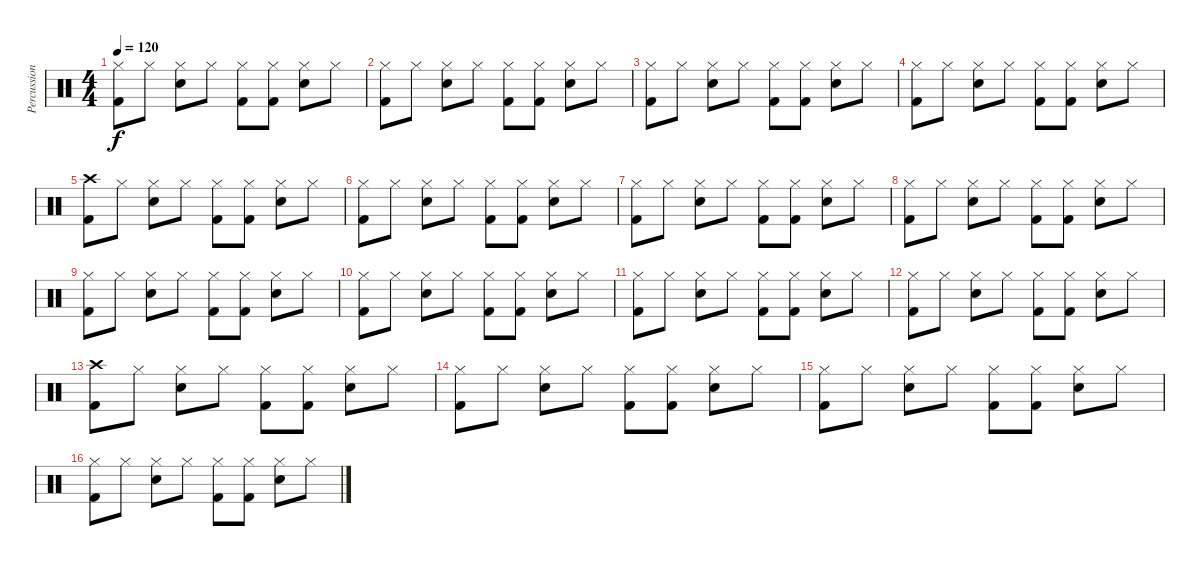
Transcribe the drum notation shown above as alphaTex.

\track ("Percussion" "Percussion") {instrument percussion}
\staff {score}
\articulation defaults
\ts (4 4)
\tempo 120
\clef neutral
\ks c
("Hi-Hat (closed)" "Kick (hit) 2").8{dy f} "Hi-Hat (closed)".8 ("Hi-Hat (closed)" "Electric Snare (hit)").8 "Hi-Hat (closed)".8 ("Hi-Hat (closed)" "Kick (hit) 2").8 ("Hi-Hat (closed)" "Kick (hit) 2").8 ("Hi-Hat (closed)" "Electric Snare (hit)").8 "Hi-Hat (closed)".8 |
("Hi-Hat (closed)" "Kick (hit) 2").8 "Hi-Hat (closed)".8 ("Hi-Hat (closed)" "Electric Snare (hit)").8 "Hi-Hat (closed)".8 ("Hi-Hat (closed)" "Kick (hit) 2").8 ("Hi-Hat (closed)" "Kick (hit) 2").8 ("Hi-Hat (closed)" "Electric Snare (hit)").8 "Hi-Hat (closed)".8 |
("Hi-Hat (closed)" "Kick (hit) 2").8 "Hi-Hat (closed)".8 ("Hi-Hat (closed)" "Electric Snare (hit)").8 "Hi-Hat (closed)".8 ("Hi-Hat (closed)" "Kick (hit) 2").8 ("Hi-Hat (closed)" "Kick (hit) 2").8 ("Hi-Hat (closed)" "Electric Snare (hit)").8 "Hi-Hat (closed)".8 |
("Hi-Hat (closed)" "Kick (hit) 2").8 "Hi-Hat (closed)".8 ("Hi-Hat (closed)" "Electric Snare (hit)").8 "Hi-Hat (closed)".8 ("Hi-Hat (closed)" "Kick (hit) 2").8 ("Hi-Hat (closed)" "Kick (hit) 2").8 ("Hi-Hat (closed)" "Electric Snare (hit)").8 "Hi-Hat (closed)".8 |
("Crash high (hit)" "Kick (hit) 2").8 "Hi-Hat (closed)".8 ("Hi-Hat (closed)" "Electric Snare (hit)").8 "Hi-Hat (closed)".8 ("Hi-Hat (closed)" "Kick (hit) 2").8 ("Hi-Hat (closed)" "Kick (hit) 2").8 ("Hi-Hat (closed)" "Electric Snare (hit)").8 "Hi-Hat (closed)".8 |
("Hi-Hat (closed)" "Kick (hit) 2").8 "Hi-Hat (closed)".8 ("Hi-Hat (closed)" "Electric Snare (hit)").8 "Hi-Hat (closed)".8 ("Hi-Hat (closed)" "Kick (hit) 2").8 ("Hi-Hat (closed)" "Kick (hit) 2").8 ("Hi-Hat (closed)" "Electric Snare (hit)").8 "Hi-Hat (closed)".8 |
("Hi-Hat (closed)" "Kick (hit) 2").8 "Hi-Hat (closed)".8 ("Hi-Hat (closed)" "Electric Snare (hit)").8 "Hi-Hat (closed)".8 ("Hi-Hat (closed)" "Kick (hit) 2").8 ("Hi-Hat (closed)" "Kick (hit) 2").8 ("Hi-Hat (closed)" "Electric Snare (hit)").8 "Hi-Hat (closed)".8 |
("Hi-Hat (closed)" "Kick (hit) 2").8 "Hi-Hat (closed)".8 ("Hi-Hat (closed)" "Electric Snare (hit)").8 "Hi-Hat (closed)".8 ("Hi-Hat (closed)" "Kick (hit) 2").8 ("Hi-Hat (closed)" "Kick (hit) 2").8 ("Hi-Hat (closed)" "Electric Snare (hit)").8 "Hi-Hat (closed)".8 |
("Hi-Hat (closed)" "Kick (hit) 2").8 "Hi-Hat (closed)".8 ("Hi-Hat (closed)" "Electric Snare (hit)").8 "Hi-Hat (closed)".8 ("Hi-Hat (closed)" "Kick (hit) 2").8 ("Hi-Hat (closed)" "Kick (hit) 2").8 ("Hi-Hat (closed)" "Electric Snare (hit)").8 "Hi-Hat (closed)".8 |
("Hi-Hat (closed)" "Kick (hit) 2").8 "Hi-Hat (closed)".8 ("Hi-Hat (closed)" "Electric Snare (hit)").8 "Hi-Hat (closed)".8 ("Hi-Hat (closed)" "Kick (hit) 2").8 ("Hi-Hat (closed)" "Kick (hit) 2").8 ("Hi-Hat (closed)" "Electric Snare (hit)").8 "Hi-Hat (closed)".8 |
("Hi-Hat (closed)" "Kick (hit) 2").8 "Hi-Hat (closed)".8 ("Hi-Hat (closed)" "Electric Snare (hit)").8 "Hi-Hat (closed)".8 ("Hi-Hat (closed)" "Kick (hit) 2").8 ("Hi-Hat (closed)" "Kick (hit) 2").8 ("Hi-Hat (closed)" "Electric Snare (hit)").8 "Hi-Hat (closed)".8 |
("Hi-Hat (closed)" "Kick (hit) 2").8 "Hi-Hat (closed)".8 ("Hi-Hat (closed)" "Electric Snare (hit)").8 "Hi-Hat (closed)".8 ("Hi-Hat (closed)" "Kick (hit) 2").8 ("Hi-Hat (closed)" "Kick (hit) 2").8 ("Hi-Hat (closed)" "Electric Snare (hit)").8 "Hi-Hat (closed)".8 |
("Crash high (hit)" "Kick (hit) 2").8 "Hi-Hat (closed)".8 ("Hi-Hat (closed)" "Electric Snare (hit)").8 "Hi-Hat (closed)".8 ("Hi-Hat (closed)" "Kick (hit) 2").8 ("Hi-Hat (closed)" "Kick (hit) 2").8 ("Hi-Hat (closed)" "Electric Snare (hit)").8 "Hi-Hat (closed)".8 |
("Hi-Hat (closed)" "Kick (hit) 2").8 "Hi-Hat (closed)".8 ("Hi-Hat (closed)" "Electric Snare (hit)").8 "Hi-Hat (closed)".8 ("Hi-Hat (closed)" "Kick (hit) 2").8 ("Hi-Hat (closed)" "Kick (hit) 2").8 ("Hi-Hat (closed)" "Electric Snare (hit)").8 "Hi-Hat (closed)".8 |
("Hi-Hat (closed)" "Kick (hit) 2").8 "Hi-Hat (closed)".8 ("Hi-Hat (closed)" "Electric Snare (hit)").8 "Hi-Hat (closed)".8 ("Hi-Hat (closed)" "Kick (hit) 2").8 ("Hi-Hat (closed)" "Kick (hit) 2").8 ("Hi-Hat (closed)" "Electric Snare (hit)").8 "Hi-Hat (closed)".8 |
("Hi-Hat (closed)" "Kick (hit) 2").8 "Hi-Hat (closed)".8 ("Hi-Hat (closed)" "Electric Snare (hit)").8 "Hi-Hat (closed)".8 ("Hi-Hat (closed)" "Kick (hit) 2").8 ("Hi-Hat (closed)" "Kick (hit) 2").8 ("Hi-Hat (closed)" "Electric Snare (hit)").8 "Hi-Hat (closed)".8
